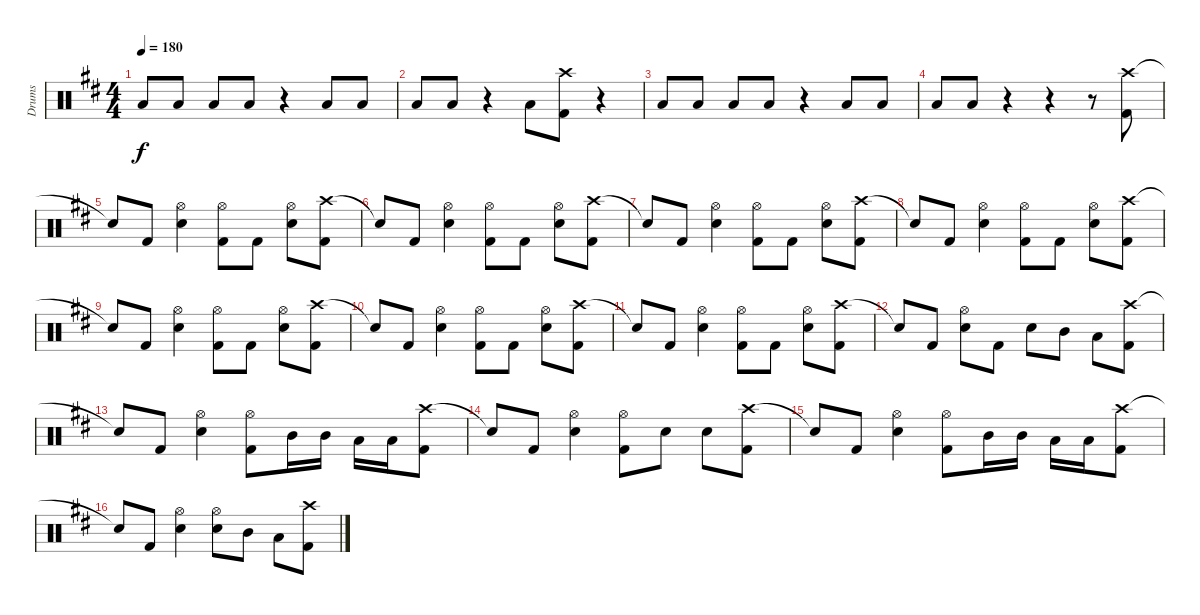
\track ("Drums" "Drums") {instrument percussion}
\staff {score}
\articulation defaults
\ts (4 4)
\tempo 180
\clef neutral
\ks bminor "Low Floor Tom (hit)".8{dy f} "Low Floor Tom (hit)".8 "Low Floor Tom (hit)".8 "Low Floor Tom (hit)".8
r.4 "Low Floor Tom (hit)".8 "Low Floor Tom (hit)".8 |
"Low Floor Tom (hit)".8 "Low Floor Tom (hit)".8 r.4 "Low Floor Tom (hit)".8 ("Crash high (hit)" "Kick (hit) 2").8 r.4 |
"Low Floor Tom (hit)".8 "Low Floor Tom (hit)".8 "Low Floor Tom (hit)".8 "Low Floor Tom (hit)".8 r.4 "Low Floor Tom (hit)".8 "Low Floor Tom (hit)".8 |
"Low Floor Tom (hit)".8 "Low Floor Tom (hit)".8 r.4 r.4 r.8 ("Crash high (hit)" "Kick (hit) 2").8 |
"Snare (hit)"{t}.8 "Kick (hit) 2".8 ("Hi-Hat (open)" "Electric Snare (hit)").4 ("Hi-Hat (open)" "Kick (hit) 2").8 "Kick (hit) 2".8 ("Hi-Hat (open)" "Electric Snare (hit)").8 ("Crash high (hit)" "Kick (hit) 2").8 |
"Snare (hit)"{t}.8 "Kick (hit) 2".8 ("Hi-Hat (open)" "Electric Snare (hit)").4 ("Hi-Hat (open)" "Kick (hit) 2").8 "Kick (hit) 2".8 ("Hi-Hat (open)" "Electric Snare (hit)").8 ("Crash high (hit)" "Kick (hit) 2").8 |
"Snare (hit)"{t}.8 "Kick (hit) 2".8 ("Hi-Hat (open)" "Electric Snare (hit)").4 ("Hi-Hat (open)" "Kick (hit) 2").8 "Kick (hit) 2".8 ("Hi-Hat (open)" "Electric Snare (hit)").8 ("Crash high (hit)" "Kick (hit) 2").8 |
"Snare (hit)"{t}.8 "Kick (hit) 2".8 ("Hi-Hat (open)" "Electric Snare (hit)").4 ("Hi-Hat (open)" "Kick (hit) 2").8 "Kick (hit) 2".8 ("Hi-Hat (open)" "Electric Snare (hit)").8 ("Crash high (hit)" "Kick (hit) 2").8 |
"Snare (hit)"{t}.8 "Kick (hit) 2".8 ("Hi-Hat (open)" "Electric Snare (hit)").4 ("Hi-Hat (open)" "Kick (hit) 2").8 "Kick (hit) 2".8 ("Hi-Hat (open)" "Electric Snare (hit)").8 ("Crash high (hit)" "Kick (hit) 2").8 |
"Snare (hit)"{t}.8 "Kick (hit) 2".8 ("Hi-Hat (open)" "Electric Snare (hit)").4 ("Hi-Hat (open)" "Kick (hit) 2").8 "Kick (hit) 2".8 ("Hi-Hat (open)" "Electric Snare (hit)").8 ("Crash high (hit)" "Kick (hit) 2").8 |
"Snare (hit)"{t}.8 "Kick (hit) 2".8 ("Hi-Hat (open)" "Electric Snare (hit)").4 ("Hi-Hat (open)" "Kick (hit) 2").8 "Kick (hit) 2".8 ("Hi-Hat (open)" "Electric Snare (hit)").8 ("Crash high (hit)" "Kick (hit) 2").8 |
"Snare (hit)"{t}.8 "Kick (hit) 2".8 ("Hi-Hat (open)" "Electric Snare (hit)").8 "Kick (hit) 2".8 "Electric Snare (hit)".8 "Mid Tom (hit)".8 "Low Tom (hit)".8 ("Crash high (hit)" "Kick (hit) 2").8 |
"Snare (hit)"{t}.8 "Kick (hit) 2".8 ("Hi-Hat (open)" "Electric Snare (hit)").4 ("Hi-Hat (open)" "Kick (hit) 2").8 "Mid Tom (hit)".16 "Mid Tom (hit)".16 "Low Tom (hit)".16 "Low Tom (hit)".16 ("Crash high (hit)" "Kick (hit) 2").8 |
"Snare (hit)"{t}.8 "Kick (hit) 2".8 ("Hi-Hat (open)" "Electric Snare (hit)").4 ("Hi-Hat (open)" "Kick (hit) 2").8 "Electric Snare (hit)".8 "Electric Snare (hit)".8 ("Crash high (hit)" "Kick (hit) 2").8 |
"Snare (hit)"{t}.8 "Kick (hit) 2".8 ("Hi-Hat (open)" "Electric Snare (hit)").4 ("Hi-Hat (open)" "Kick (hit) 2").8 "Mid Tom (hit)".16 "Mid Tom (hit)".16 "Low Tom (hit)".16 "Low Tom (hit)".16 ("Crash high (hit)" "Kick (hit) 2").8 |
"Snare (hit)"{t}.8 "Kick (hit) 2".8 ("Hi-Hat (open)" "Electric Snare (hit)").4 ("Hi-Hat (open)" "Electric Snare (hit)").8 "Mid Tom (hit)".8 "Low Tom (hit)".8 ("Crash high (hit)" "Kick (hit) 2").8
